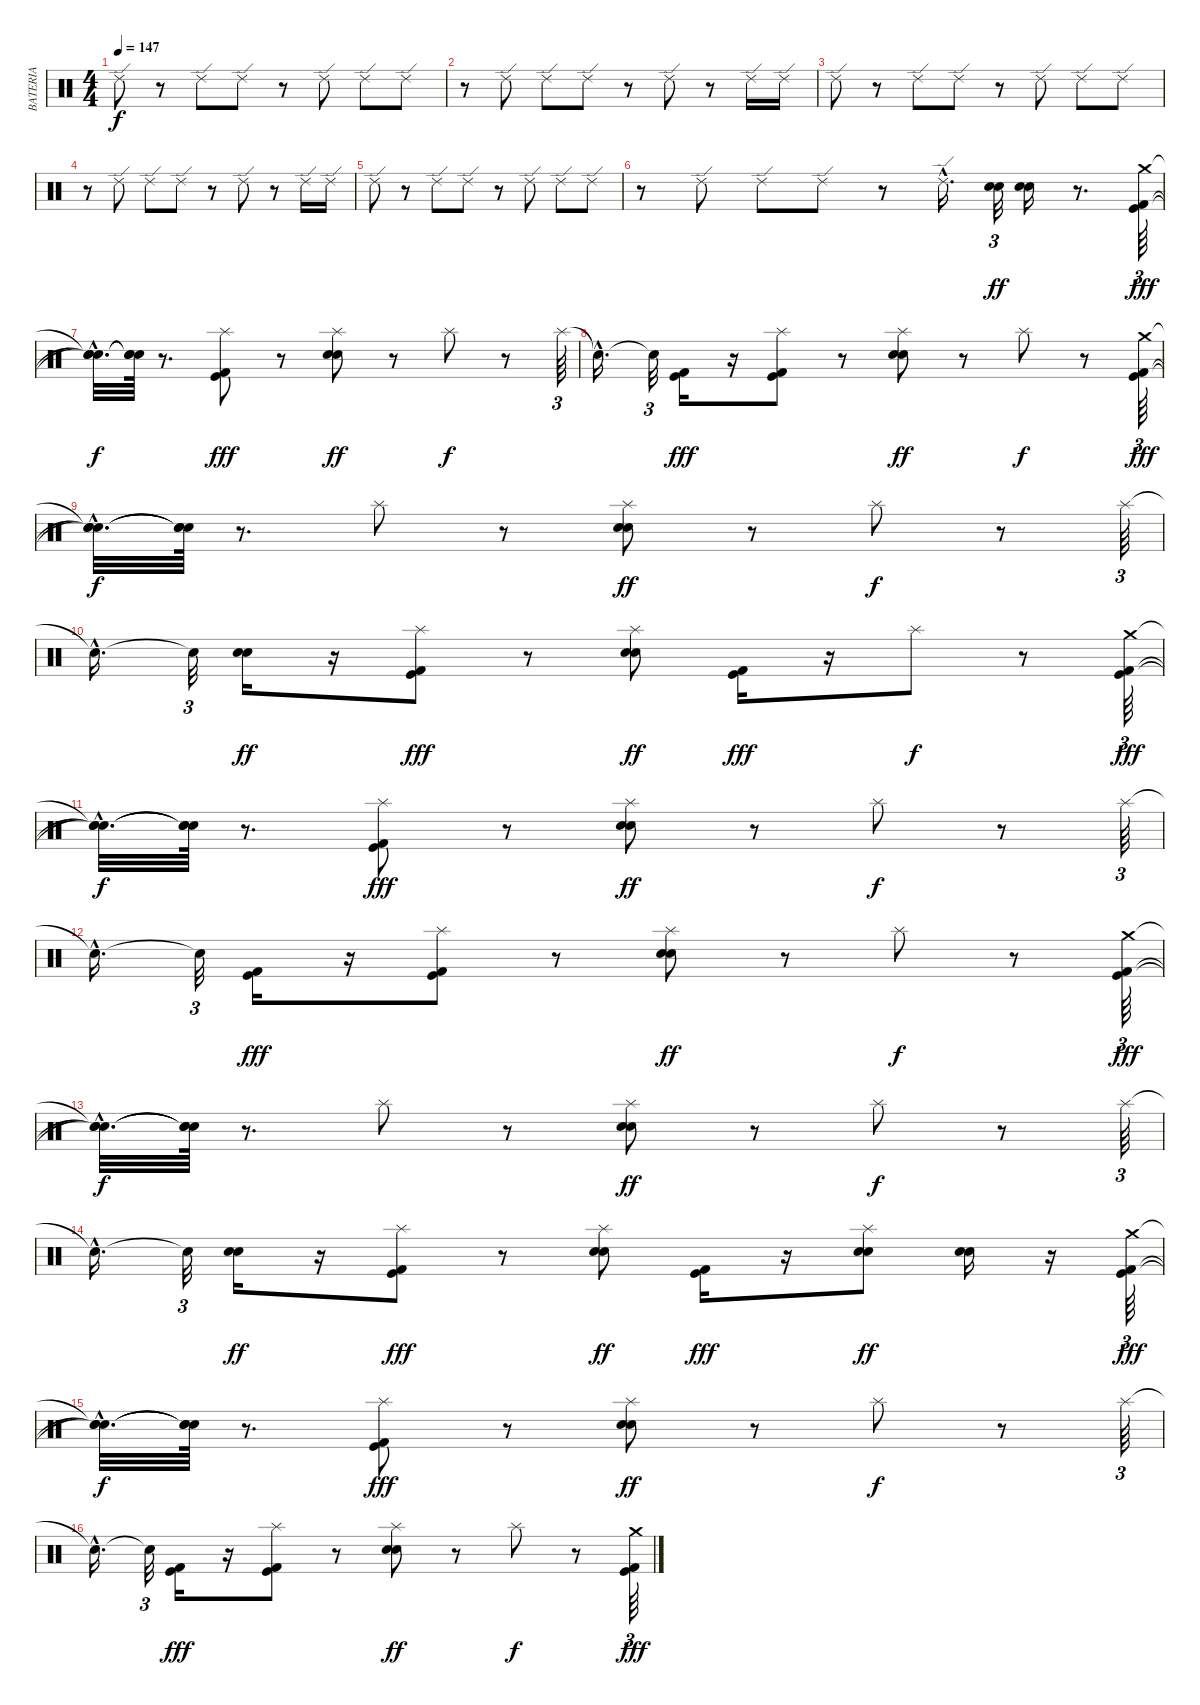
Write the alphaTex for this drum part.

\track ("BATERIA" "BATERIA") {instrument percussion}
\staff {score}
\articulation defaults
\ts (4 4)
\tempo 147
\clef neutral
\ks c "Ride (edge) 2".8{dy f}
r.8 "Ride (edge) 2".8 "Ride (edge) 2".8 r.8 "Ride (edge) 2".8 "Ride (edge) 2".8 "Ride (edge) 2".8 |
r.8 "Ride (edge) 2".8 "Ride (edge) 2".8 "Ride (edge) 2".8 r.8 "Ride (edge) 2".8 r.8 "Ride (edge) 2".16 "Ride (edge) 2".16 |
"Ride (edge) 2".8 r.8 "Ride (edge) 2".8 "Ride (edge) 2".8 r.8 "Ride (edge) 2".8 "Ride (edge) 2".8 "Ride (edge) 2".8 |
r.8 "Ride (edge) 2".8 "Ride (edge) 2".8 "Ride (edge) 2".8 r.8 "Ride (edge) 2".8 r.8 "Ride (edge) 2".16 "Ride (edge) 2".16 |
"Ride (edge) 2".8 r.8 "Ride (edge) 2".8 "Ride (edge) 2".8 r.8 "Ride (edge) 2".8 "Ride (edge) 2".8 "Ride (edge) 2".8 |
r.8 "Ride (edge) 2".8 "Ride (edge) 2".8 "Ride (edge) 2".8 r.8 "Ride (edge) 2"{hac}.16{d} ("Snare (hit) 2" "Electric Snare (hit)").32{tu (3 2) dy ff} ("Electric Snare (hit)" "Snare (hit) 2").16 r.8{d} ("Kick (hit) 2" "Kick (hit)" "Crash medium (hit)").64{tu (3 2) dy fff} |
("Snare (hit)"{hac t} "Snare (hit)"{hac t} "Snare (hit)"{hac t}).32{d dy f} ("Snare (hit)"{t} "Snare (hit)"{t} "Snare (hit)"{t}).64 r.8{d} ("Kick (hit) 2" "Kick (hit)" "Splash (hit)").8{dy fff} r.8 ("Electric Snare (hit)" "Snare (hit) 2" "Splash (hit)").8{dy ff} r.8 "Splash (hit)".8{dy f} r.8 "Splash (hit)".64{tu (3 2)} |
"Snare (hit)"{hac t}.16{d} "Snare (hit)"{t}.32{tu (3 2)} ("Kick (hit) 2" "Kick (hit)").16{dy fff} r.16 ("Kick (hit) 2" "Kick (hit)" "Splash (hit)").8 r.8 ("Electric Snare (hit)" "Snare (hit) 2" "Splash (hit)").8{dy ff} r.8 "Splash (hit)".8{dy f} r.8 ("Kick (hit) 2" "Kick (hit)" "Crash medium (hit)").64{tu (3 2) dy fff} |
("Snare (hit)"{hac t} "Snare (hit)"{hac t} "Snare (hit)"{hac t}).32{d dy f} ("Snare (hit)"{t} "Snare (hit)"{t} "Snare (hit)"{t}).64 r.8{d} "Splash (hit)".8 r.8 ("Electric Snare (hit)" "Snare (hit) 2" "Splash (hit)").8{dy ff} r.8 "Splash (hit)".8{dy f} r.8 "Splash (hit)".64{tu (3 2)} |
"Snare (hit)"{hac t}.16{d} "Snare (hit)"{t}.32{tu (3 2)} ("Electric Snare (hit)" "Snare (hit) 2").16{dy ff} r.16 ("Kick (hit) 2" "Kick (hit)" "Splash (hit)").8{dy fff} r.8 ("Electric Snare (hit)" "Snare (hit) 2" "Splash (hit)").8{dy ff} ("Kick (hit) 2" "Kick (hit)").16{dy fff} r.16 "Splash (hit)".8{dy f} r.8 ("Kick (hit) 2" "Kick (hit)" "Crash medium (hit)").64{tu (3 2) dy fff} |
("Snare (hit)"{hac t} "Snare (hit)"{hac t} "Snare (hit)"{hac t}).32{d dy f} ("Snare (hit)"{t} "Snare (hit)"{t} "Snare (hit)"{t}).64 r.8{d} ("Kick (hit) 2" "Kick (hit)" "Splash (hit)").8{dy fff} r.8 ("Electric Snare (hit)" "Snare (hit) 2" "Splash (hit)").8{dy ff} r.8 "Splash (hit)".8{dy f} r.8 "Splash (hit)".64{tu (3 2)} |
"Snare (hit)"{hac t}.16{d} "Snare (hit)"{t}.32{tu (3 2)} ("Kick (hit) 2" "Kick (hit)").16{dy fff} r.16 ("Kick (hit) 2" "Kick (hit)" "Splash (hit)").8 r.8 ("Electric Snare (hit)" "Snare (hit) 2" "Splash (hit)").8{dy ff} r.8 "Splash (hit)".8{dy f} r.8 ("Kick (hit) 2" "Kick (hit)" "Crash medium (hit)").64{tu (3 2) dy fff} |
("Snare (hit)"{hac t} "Snare (hit)"{hac t} "Snare (hit)"{hac t}).32{d dy f} ("Snare (hit)"{t} "Snare (hit)"{t} "Snare (hit)"{t}).64 r.8{d} "Splash (hit)".8 r.8 ("Electric Snare (hit)" "Snare (hit) 2" "Splash (hit)").8{dy ff} r.8 "Splash (hit)".8{dy f} r.8 "Splash (hit)".64{tu (3 2)} |
"Snare (hit)"{hac t}.16{d} "Snare (hit)"{t}.32{tu (3 2)} ("Electric Snare (hit)" "Snare (hit) 2").16{dy ff} r.16 ("Kick (hit) 2" "Kick (hit)" "Splash (hit)").8{dy fff} r.8 ("Electric Snare (hit)" "Snare (hit) 2" "Splash (hit)").8{dy ff} ("Kick (hit) 2" "Kick (hit)").16{dy fff} r.16 ("Electric Snare (hit)" "Snare (hit) 2" "Splash (hit)").8{dy ff} ("Electric Snare (hit)" "Snare (hit) 2").16 r.16 ("Kick (hit) 2" "Kick (hit)" "Crash medium (hit)").64{tu (3 2) dy fff} |
("Snare (hit)"{hac t} "Snare (hit)"{hac t} "Snare (hit)"{hac t}).32{d dy f} ("Snare (hit)"{t} "Snare (hit)"{t} "Snare (hit)"{t}).64 r.8{d} ("Kick (hit) 2" "Kick (hit)" "Splash (hit)").8{dy fff} r.8 ("Electric Snare (hit)" "Snare (hit) 2" "Splash (hit)").8{dy ff} r.8 "Splash (hit)".8{dy f} r.8 "Splash (hit)".64{tu (3 2)} |
"Snare (hit)"{hac t}.16{d} "Snare (hit)"{t}.32{tu (3 2)} ("Kick (hit) 2" "Kick (hit)").16{dy fff} r.16 ("Kick (hit) 2" "Kick (hit)" "Splash (hit)").8 r.8 ("Electric Snare (hit)" "Snare (hit) 2" "Splash (hit)").8{dy ff} r.8 "Splash (hit)".8{dy f} r.8 ("Kick (hit) 2" "Kick (hit)" "Crash medium (hit)").64{tu (3 2) dy fff}
